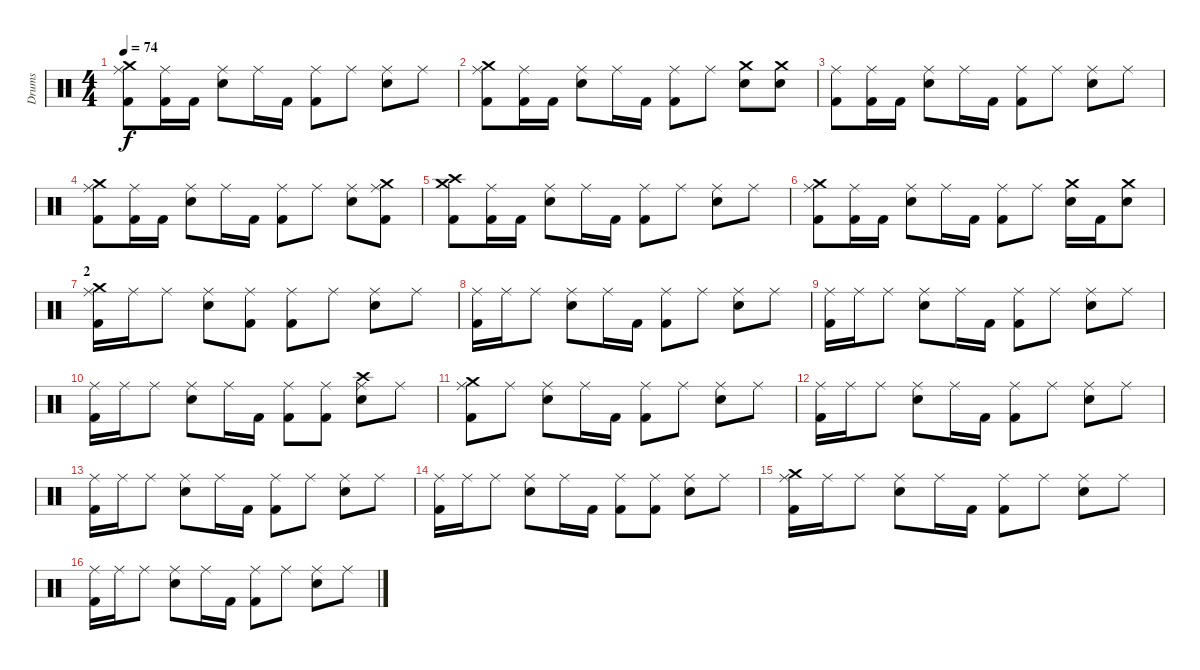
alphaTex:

\track ("Drums" "Drums") {instrument percussion}
\staff {score}
\articulation defaults
\ts (4 4)
\tempo 74
\clef neutral
\ks c
("Ride (middle)" "Crash medium (hit)" "Kick (hit) 2").8{dy f} ("Ride (middle)" "Kick (hit) 2").16 "Kick (hit) 2".16 ("Ride (middle)" "Snare (hit) 2").8 "Ride (middle)".16 "Kick (hit) 2".16 ("Ride (middle)" "Kick (hit) 2").8 "Ride (middle)".8 ("Ride (middle)" "Snare (hit) 2").8 "Ride (middle)".8 |
("Ride (middle)" "Crash medium (hit)" "Kick (hit) 2").8 ("Ride (middle)" "Kick (hit) 2").16 "Kick (hit) 2".16 ("Ride (middle)" "Snare (hit) 2").8 "Ride (middle)".16 "Kick (hit) 2".16 ("Ride (middle)" "Kick (hit) 2").8 "Ride (middle)".8 ("Crash medium (hit)" "Snare (hit) 2").8 ("Crash medium (hit)" "Snare (hit) 2").8 |
("Ride (middle)" "Kick (hit) 2").8 ("Ride (middle)" "Kick (hit) 2").16 "Kick (hit) 2".16 ("Ride (middle)" "Snare (hit) 2").8 "Ride (middle)".16 "Kick (hit) 2".16 ("Ride (middle)" "Kick (hit) 2").8 "Ride (middle)".8 ("Ride (middle)" "Snare (hit) 2").8 "Ride (middle)".8 |
("Ride (middle)" "Crash medium (hit)" "Kick (hit) 2").8 ("Ride (middle)" "Kick (hit) 2").16 "Kick (hit) 2".16 ("Ride (middle)" "Snare (hit) 2").8 "Ride (middle)".16 "Kick (hit) 2".16 ("Ride (middle)" "Kick (hit) 2").8 "Ride (middle)".8 ("Ride (middle)" "Snare (hit) 2").8 ("Ride (middle)" "Crash medium (hit)" "Kick (hit) 2").8 |
("Crash high (hit)" "Crash medium (hit)" "Kick (hit) 2").8 ("Ride (middle)" "Kick (hit) 2").16 "Kick (hit) 2".16 ("Ride (middle)" "Snare (hit) 2").8 "Ride (middle)".16 "Kick (hit) 2".16 ("Ride (middle)" "Kick (hit) 2").8 "Ride (middle)".8 ("Ride (middle)" "Snare (hit) 2").8 "Ride (middle)".8 |
("Ride (middle)" "Crash medium (hit)" "Kick (hit) 2").8 ("Ride (middle)" "Kick (hit) 2").16 "Kick (hit) 2".16 ("Ride (middle)" "Snare (hit) 2").8 "Ride (middle)".16 "Kick (hit) 2".16 ("Ride (middle)" "Kick (hit) 2").8 "Ride (middle)".8 ("Crash medium (hit)" "Snare (hit) 2").16 "Kick (hit) 2".16 ("Crash medium (hit)" "Snare (hit) 2").8 |
\section ("" "2")
("Ride (middle)" "Crash medium (hit)" "Kick (hit) 2").16 "Ride (middle)".16 "Ride (middle)".8 ("Ride (middle)" "Snare (hit) 2").8 ("Ride (middle)" "Kick (hit) 2").8 ("Ride (middle)" "Kick (hit) 2").8 "Ride (middle)".8 ("Ride (middle)" "Snare (hit) 2").8 "Ride (middle)".8 |
("Ride (middle)" "Kick (hit) 2").16 "Ride (middle)".16 "Ride (middle)".8 ("Ride (middle)" "Snare (hit) 2").8 "Ride (middle)".16 "Kick (hit) 2".16 ("Ride (middle)" "Kick (hit) 2").8 "Ride (middle)".8 ("Ride (middle)" "Snare (hit) 2").8 "Ride (middle)".8 |
("Ride (middle)" "Kick (hit) 2").16 "Ride (middle)".16 "Ride (middle)".8 ("Ride (middle)" "Snare (hit) 2").8 "Ride (middle)".16 "Kick (hit) 2".16 ("Ride (middle)" "Kick (hit) 2").8 "Ride (middle)".8 ("Ride (middle)" "Snare (hit) 2").8 "Ride (middle)".8 |
("Ride (middle)" "Kick (hit) 2").16 "Ride (middle)".16 "Ride (middle)".8 ("Ride (middle)" "Snare (hit) 2").8 "Ride (middle)".16 "Kick (hit) 2".16 ("Ride (middle)" "Kick (hit) 2").8 ("Ride (middle)" "Kick (hit) 2").8 ("Ride (middle)" "Crash high (hit)" "Snare (hit) 2").8 "Ride (middle)".8 |
("Ride (middle)" "Crash medium (hit)" "Kick (hit) 2").8 "Ride (middle)".8 ("Ride (middle)" "Snare (hit) 2").8 "Ride (middle)".16 "Kick (hit) 2".16 ("Ride (middle)" "Kick (hit) 2").8 "Ride (middle)".8 ("Ride (middle)" "Snare (hit) 2").8 "Ride (middle)".8 |
("Ride (middle)" "Kick (hit) 2").16 "Ride (middle)".16 "Ride (middle)".8 ("Ride (middle)" "Snare (hit) 2").8 "Ride (middle)".16 "Kick (hit) 2".16 ("Ride (middle)" "Kick (hit) 2").8 "Ride (middle)".8 ("Ride (middle)" "Snare (hit) 2").8 "Ride (middle)".8 |
("Ride (middle)" "Kick (hit) 2").16 "Ride (middle)".16 "Ride (middle)".8 ("Ride (middle)" "Snare (hit) 2").8 "Ride (middle)".16 "Kick (hit) 2".16 ("Ride (middle)" "Kick (hit) 2").8 "Ride (middle)".8 ("Ride (middle)" "Snare (hit) 2").8 "Ride (middle)".8 |
("Ride (middle)" "Kick (hit) 2").16 "Ride (middle)".16 "Ride (middle)".8 ("Ride (middle)" "Snare (hit) 2").8 "Ride (middle)".16 "Kick (hit) 2".16 ("Ride (middle)" "Kick (hit) 2").8 ("Ride (middle)" "Kick (hit) 2").8 ("Ride (middle)" "Snare (hit) 2").8 "Ride (middle)".8 |
("Ride (middle)" "Crash medium (hit)" "Kick (hit) 2").16 "Ride (middle)".16 "Ride (middle)".8 ("Ride (middle)" "Snare (hit) 2").8 "Ride (middle)".16 "Kick (hit) 2".16 ("Ride (middle)" "Kick (hit) 2").8 "Ride (middle)".8 ("Ride (middle)" "Snare (hit) 2").8 "Ride (middle)".8 |
("Ride (middle)" "Kick (hit) 2").16 "Ride (middle)".16 "Ride (middle)".8 ("Ride (middle)" "Snare (hit) 2").8 "Ride (middle)".16 "Kick (hit) 2".16 ("Ride (middle)" "Kick (hit) 2").8 "Ride (middle)".8 ("Ride (middle)" "Snare (hit) 2").8 "Ride (middle)".8
